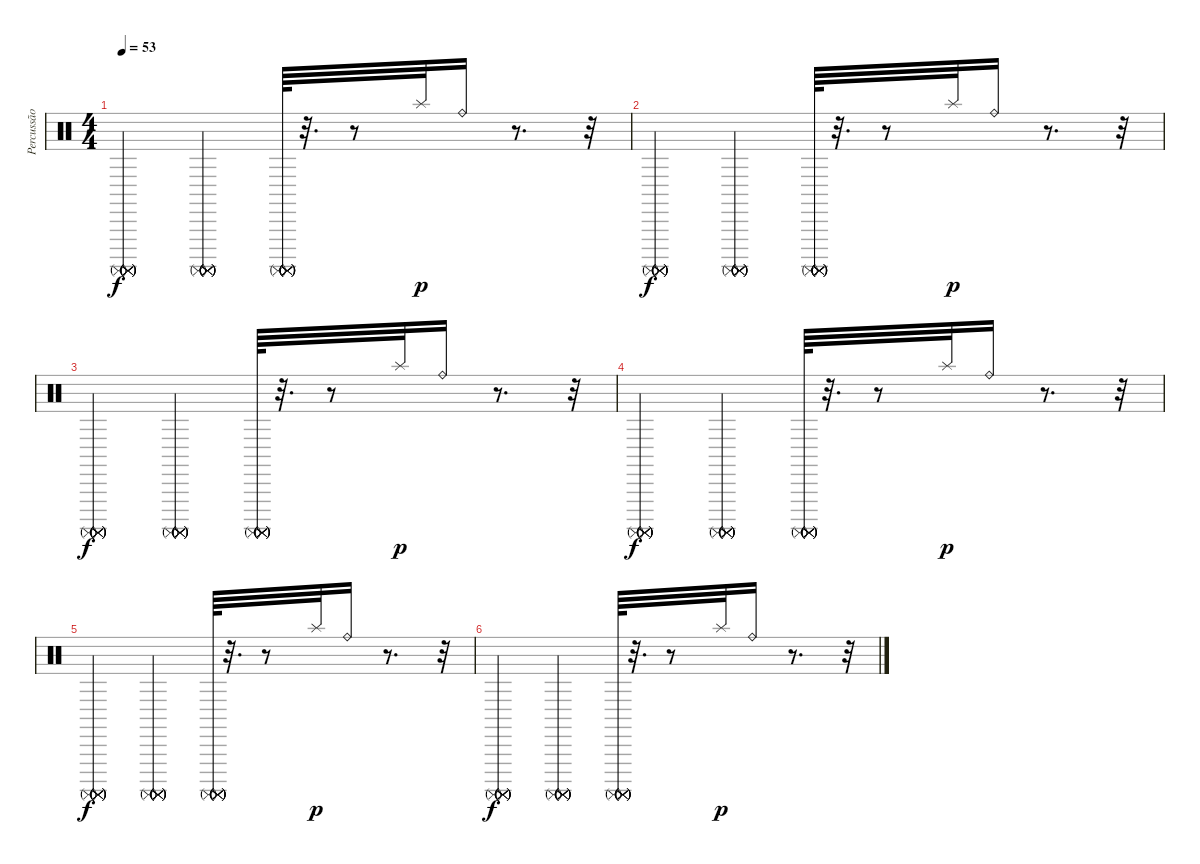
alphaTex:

\track ("Percussão" "Percussão") {instrument percussion}
\staff {score}
\articulation defaults
\ts (4 4)
\tempo 53
\clef neutral
\ks c
("Surdo (mute)" "Surdo (mute)" "Surdo (mute)" "Surdo (mute)" "Surdo (mute)" "Surdo (mute)").4{dy f} ("Surdo (mute)" "Surdo (mute)" "Surdo (mute)" "Surdo (mute)" "Surdo (mute)" "Surdo (mute)").4 ("Surdo (mute)" "Surdo (mute)" "Surdo (mute)" "Surdo (mute)" "Surdo (mute)" "Surdo (mute)").64 r.32{d} r.8 "Splash (hit)".32{dy p} "Ride (bell)".16 r.8{d} r.32 |
("Surdo (mute)" "Surdo (mute)" "Surdo (mute)" "Surdo (mute)" "Surdo (mute)" "Surdo (mute)").4{dy f} ("Surdo (mute)" "Surdo (mute)" "Surdo (mute)" "Surdo (mute)" "Surdo (mute)" "Surdo (mute)").4 ("Surdo (mute)" "Surdo (mute)" "Surdo (mute)" "Surdo (mute)" "Surdo (mute)" "Surdo (mute)").64 r.32{d} r.8 "Splash (hit)".32{dy p} "Ride (bell)".16 r.8{d} r.32 |
("Surdo (mute)" "Surdo (mute)" "Surdo (mute)" "Surdo (mute)" "Surdo (mute)" "Surdo (mute)").4{dy f} ("Surdo (mute)" "Surdo (mute)" "Surdo (mute)" "Surdo (mute)" "Surdo (mute)" "Surdo (mute)").4 ("Surdo (mute)" "Surdo (mute)" "Surdo (mute)" "Surdo (mute)" "Surdo (mute)" "Surdo (mute)").64 r.32{d} r.8 "Splash (hit)".32{dy p} "Ride (bell)".16 r.8{d} r.32 |
("Surdo (mute)" "Surdo (mute)" "Surdo (mute)" "Surdo (mute)" "Surdo (mute)" "Surdo (mute)").4{dy f} ("Surdo (mute)" "Surdo (mute)" "Surdo (mute)" "Surdo (mute)" "Surdo (mute)" "Surdo (mute)").4 ("Surdo (mute)" "Surdo (mute)" "Surdo (mute)" "Surdo (mute)" "Surdo (mute)" "Surdo (mute)").64 r.32{d} r.8 "Splash (hit)".32{dy p} "Ride (bell)".16 r.8{d} r.32 |
("Surdo (mute)" "Surdo (mute)" "Surdo (mute)" "Surdo (mute)" "Surdo (mute)" "Surdo (mute)").4{dy f} ("Surdo (mute)" "Surdo (mute)" "Surdo (mute)" "Surdo (mute)" "Surdo (mute)" "Surdo (mute)").4 ("Surdo (mute)" "Surdo (mute)" "Surdo (mute)" "Surdo (mute)" "Surdo (mute)" "Surdo (mute)").64 r.32{d} r.8 "Splash (hit)".32{dy p} "Ride (bell)".16 r.8{d} r.32 |
("Surdo (mute)" "Surdo (mute)" "Surdo (mute)" "Surdo (mute)" "Surdo (mute)" "Surdo (mute)").4{dy f} ("Surdo (mute)" "Surdo (mute)" "Surdo (mute)" "Surdo (mute)" "Surdo (mute)" "Surdo (mute)").4 ("Surdo (mute)" "Surdo (mute)" "Surdo (mute)" "Surdo (mute)" "Surdo (mute)" "Surdo (mute)").64 r.32{d} r.8 "Splash (hit)".32{dy p} "Ride (bell)".16 r.8{d} r.32
